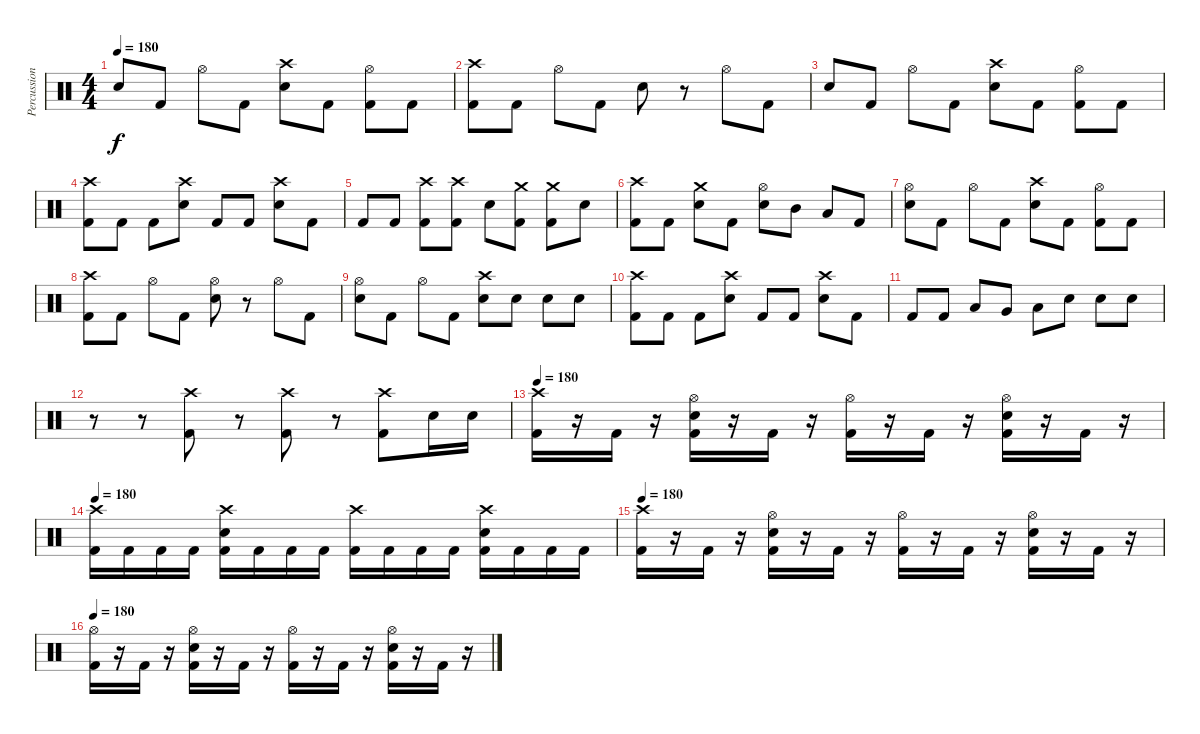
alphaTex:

\track ("Percussion" "Percussion") {instrument percussion}
\staff {score}
\articulation defaults
\ts (4 4)
\tempo 180
\clef neutral
\ks c "Snare (hit) 2".8{dy f} "Kick (hit) 2".8 "Hi-Hat (open)".8 "Kick (hit) 2".8
("Crash high (hit)" "Snare (hit) 2").8 "Kick (hit) 2".8 ("Hi-Hat (open)" "Kick (hit) 2").8 "Kick (hit) 2".8 |
("Crash high (hit)" "Kick (hit) 2").8 "Kick (hit) 2".8 "Hi-Hat (open)".8 "Kick (hit) 2".8 "Snare (hit) 2".8 r.8 "Hi-Hat (open)".8 "Kick (hit) 2".8 |
"Snare (hit) 2".8 "Kick (hit) 2".8 "Hi-Hat (open)".8 "Kick (hit) 2".8 ("Crash high (hit)" "Snare (hit) 2").8 "Kick (hit) 2".8 ("Hi-Hat (open)" "Kick (hit) 2").8 "Kick (hit) 2".8 |
("Crash high (hit)" "Kick (hit) 2").8 "Kick (hit) 2".8 "Kick (hit) 2".8 ("Crash high (hit)" "Snare (hit) 2").8 "Kick (hit) 2".8 "Kick (hit) 2".8 ("Crash high (hit)" "Snare (hit) 2").8 "Kick (hit) 2".8 |
"Kick (hit) 2".8 "Kick (hit) 2".8 ("Crash high (hit)" "Kick (hit) 2").8 ("Crash high (hit)" "Kick (hit) 2").8 "Snare (hit) 2".8 ("Crash medium (hit)" "Kick (hit) 2").8 ("Crash medium (hit)" "Kick (hit) 2").8 "Snare (hit) 2".8 |
("Crash high (hit)" "Kick (hit) 2").8 "Kick (hit) 2".8 ("Crash medium (hit)" "Snare (hit) 2").8 "Kick (hit) 2".8 ("Hi-Hat (open)" "Snare (hit) 2").8 "Mid Tom (hit)".8 "Low Tom (hit)".8 "Kick (hit) 2".8 |
("Hi-Hat (open)" "Snare (hit) 2").8 "Kick (hit) 2".8 "Hi-Hat (open)".8 "Kick (hit) 2".8 ("Crash high (hit)" "Snare (hit) 2").8 "Kick (hit) 2".8 ("Hi-Hat (open)" "Kick (hit) 2").8 "Kick (hit) 2".8 |
("Crash high (hit)" "Kick (hit) 2").8 "Kick (hit) 2".8 "Hi-Hat (open)".8 "Kick (hit) 2".8 ("Hi-Hat (open)" "Snare (hit) 2").8 r.8 "Hi-Hat (open)".8 "Kick (hit) 2".8 |
("Hi-Hat (open)" "Snare (hit) 2").8 "Kick (hit) 2".8 "Hi-Hat (open)".8 "Kick (hit) 2".8 ("Crash high (hit)" "Snare (hit) 2").8 "Snare (hit) 2".8 "Snare (hit) 2".8 "Snare (hit) 2".8 |
("Crash high (hit)" "Kick (hit) 2").8 "Kick (hit) 2".8 "Kick (hit) 2".8 ("Crash high (hit)" "Snare (hit) 2").8 "Kick (hit) 2".8 "Kick (hit) 2".8 ("Crash high (hit)" "Snare (hit) 2").8 "Kick (hit) 2".8 |
"Kick (hit) 2".8 "Kick (hit) 2".8 "Low Tom (hit)".8 "Very Low Tom (hit)".8 "Low Floor Tom (hit)".8 "Snare (hit) 2".8 "Snare (hit) 2".8 "Snare (hit) 2".8 |
r.8 r.8 ("Crash high (hit)" "Kick (hit) 2").8 r.8 ("Crash high (hit)" "Kick (hit) 2").8 r.8 ("Crash high (hit)" "Kick (hit) 2").8 "Snare (hit) 2".16 "Snare (hit) 2".16 |
\tempo 180
("Crash high (hit)" "Kick (hit) 2").16 r.16 "Kick (hit) 2".16 r.16 ("Hi-Hat (open)" "Snare (hit) 2" "Kick (hit) 2").16 r.16 "Kick (hit) 2".16 r.16 ("Hi-Hat (open)" "Kick (hit) 2").16 r.16 "Kick (hit) 2".16 r.16 ("Hi-Hat (open)" "Snare (hit) 2" "Kick (hit) 2").16 r.16 "Kick (hit) 2".16 r.16 |
\tempo 180
("Crash high (hit)" "Kick (hit) 2").16 "Kick (hit) 2".16 "Kick (hit) 2".16 "Kick (hit) 2".16 ("Crash high (hit)" "Snare (hit) 2" "Kick (hit) 2").16 "Kick (hit) 2".16 "Kick (hit) 2".16 "Kick (hit) 2".16 ("Crash high (hit)" "Kick (hit) 2").16 "Kick (hit) 2".16 "Kick (hit) 2".16 "Kick (hit) 2".16 ("Crash high (hit)" "Snare (hit) 2" "Kick (hit) 2").16 "Kick (hit) 2".16 "Kick (hit) 2".16 "Kick (hit) 2".16 |
\tempo 180
("Crash high (hit)" "Kick (hit) 2").16 r.16 "Kick (hit) 2".16 r.16 ("Hi-Hat (open)" "Snare (hit) 2" "Kick (hit) 2").16 r.16 "Kick (hit) 2".16 r.16 ("Hi-Hat (open)" "Kick (hit) 2").16 r.16 "Kick (hit) 2".16 r.16 ("Hi-Hat (open)" "Snare (hit) 2" "Kick (hit) 2").16 r.16 "Kick (hit) 2".16 r.16 |
\tempo 180
("Hi-Hat (open)" "Kick (hit) 2").16 r.16 "Kick (hit) 2".16 r.16 ("Hi-Hat (open)" "Snare (hit) 2" "Kick (hit) 2").16 r.16 "Kick (hit) 2".16 r.16 ("Hi-Hat (open)" "Kick (hit) 2").16 r.16 "Kick (hit) 2".16 r.16 ("Hi-Hat (open)" "Snare (hit) 2" "Kick (hit) 2").16 r.16 "Kick (hit) 2".16 r.16
